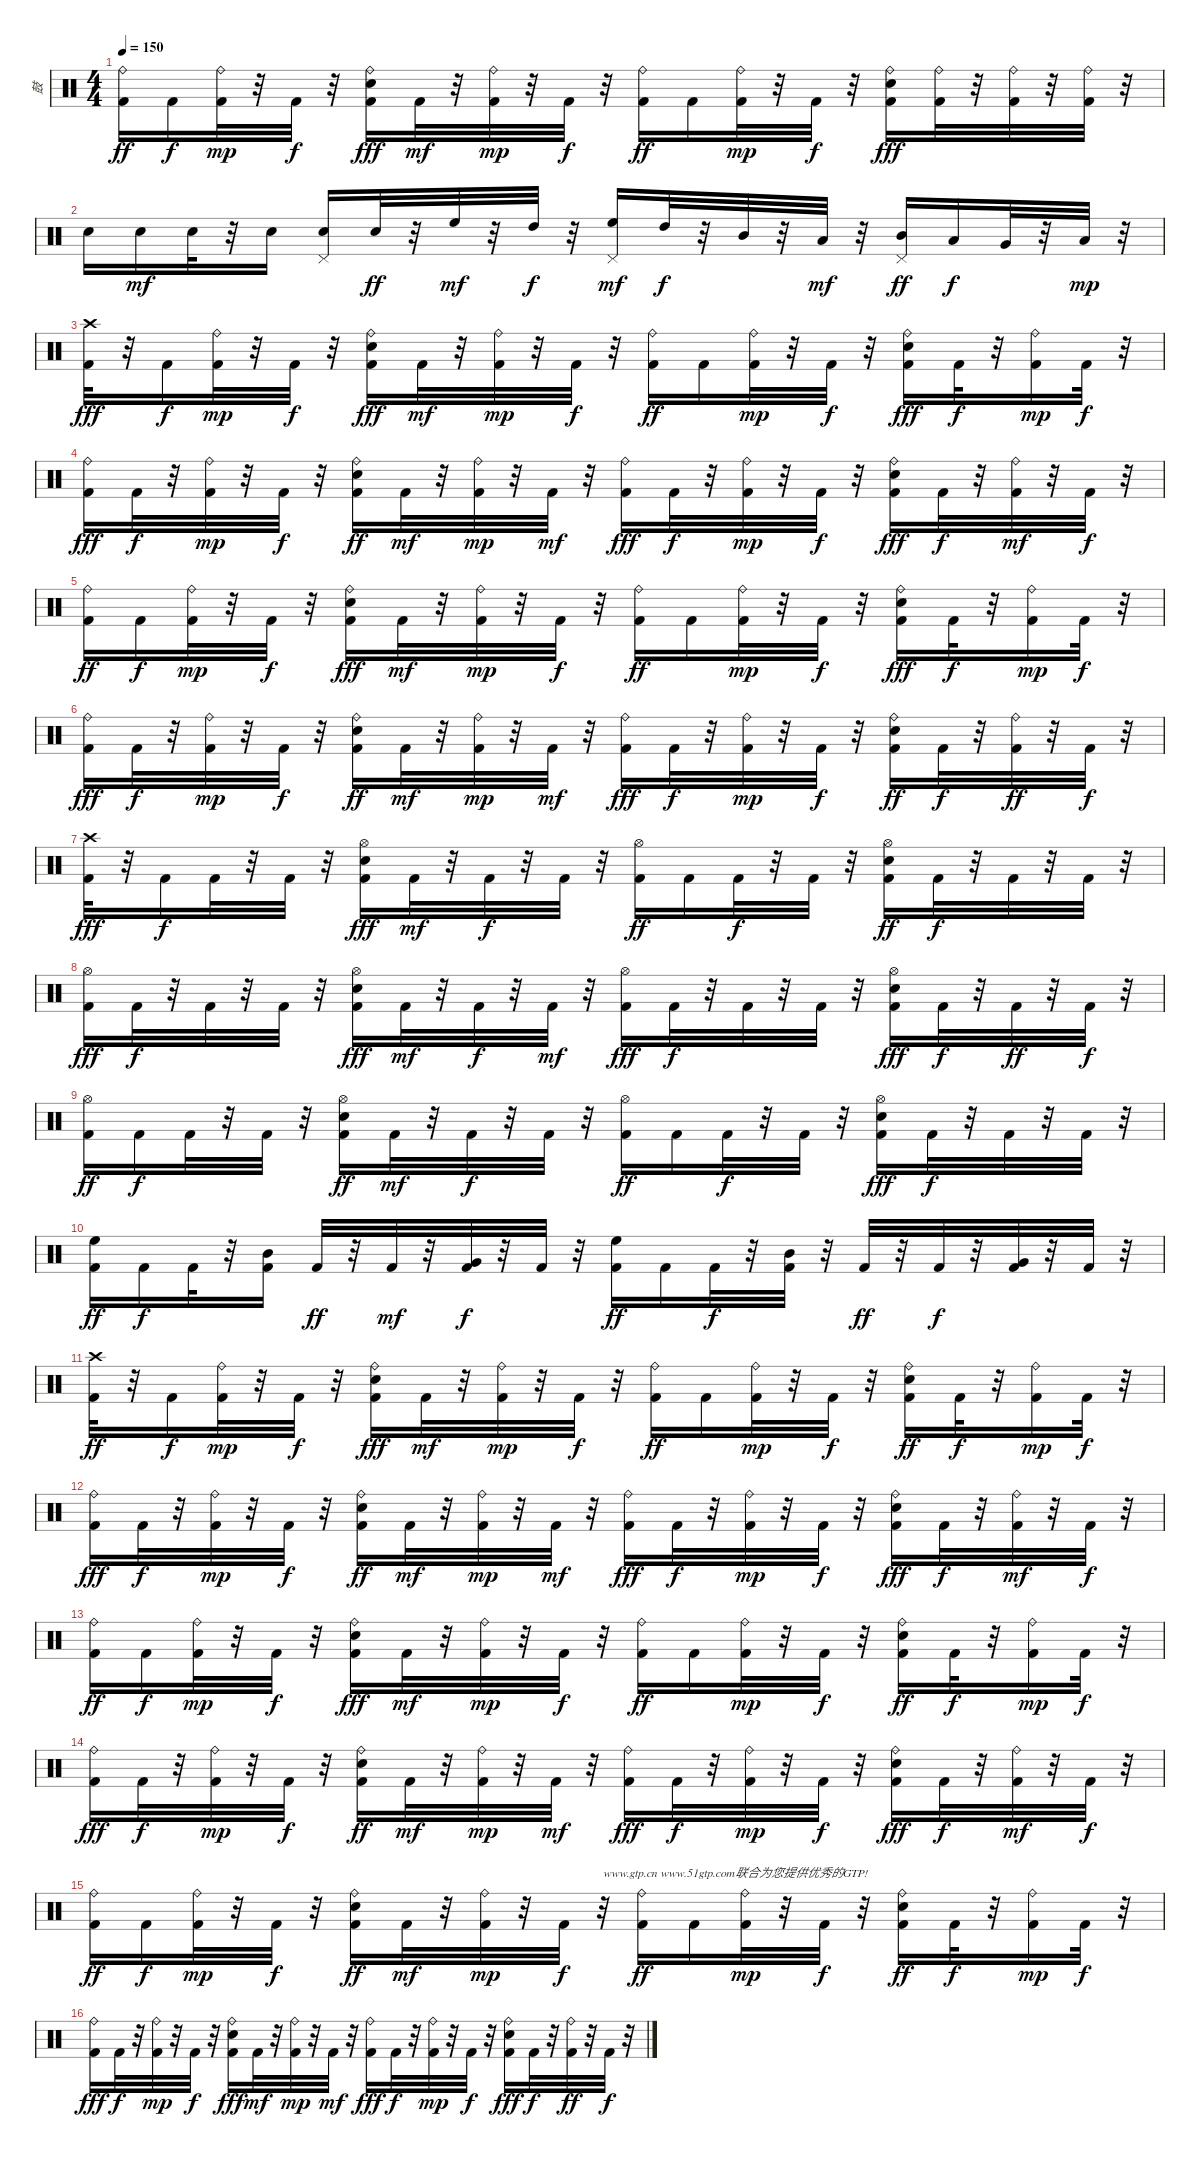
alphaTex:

\track ("鼓" "鼓") {instrument percussion}
\staff {score}
\articulation defaults
\ts (4 4)
\tempo 150
\clef neutral
\ks c
("Ride (bell)" "Kick (hit) 2").16{dy ff} "Kick (hit) 2".16{dy f} ("Ride (bell)" "Kick (hit) 2").32{dy mp} r.32 "Kick (hit) 2".32{dy f} r.32 ("Kick (hit) 2" "Electric Snare (hit)" "Ride (bell)").16{dy fff} "Kick (hit) 2".32{dy mf} r.32 ("Kick (hit) 2" "Ride (bell)").32{dy mp} r.32 "Kick (hit) 2".32{dy f} r.32 ("Ride (bell)" "Kick (hit) 2").16{dy ff} "Kick (hit) 2".16 ("Ride (bell)" "Kick (hit) 2").32{dy mp} r.32 "Kick (hit) 2".32{dy f} r.32 ("Electric Snare (hit)" "Kick (hit) 2" "Ride (bell)").16{dy fff} ("Kick (hit) 2" "Ride (bell)").32 r.32 ("Ride (bell)" "Kick (hit) 2").32 r.32 ("Ride (bell)" "Kick (hit) 2").32 r.32 |
"Electric Snare (hit)".16 "Electric Snare (hit)".16{dy mf} "Electric Snare (hit)".32 r.32 "Electric Snare (hit)".16 ("Electric Snare (hit)" "Pedal Hi-Hat (hit)").16 "Electric Snare (hit)".32{dy ff} r.32 "High Floor Tom (hit)".32{dy mf} r.32 "High Tom (hit)".32{dy f} r.32 ("High Floor Tom (hit)" "Pedal Hi-Hat (hit)").16{dy mf} "High Tom (hit)".32{dy f} r.32 "Mid Tom (hit)".32 r.32 "Low Tom (hit)".32{dy mf} r.32 ("Pedal Hi-Hat (hit)" "Mid Tom (hit)").16{dy ff} "Low Tom (hit)".16{dy f} "Very Low Tom (hit)".32 r.32 "Low Floor Tom (hit)".32{dy mp} r.32 |
("Kick (hit) 2" "Crash high (hit)").32{dy fff} r.32 "Kick (hit) 2".16{dy f} ("Ride (bell)" "Kick (hit) 2").32{dy mp} r.32 "Kick (hit) 2".32{dy f} r.32 ("Electric Snare (hit)" "Kick (hit) 2" "Ride (bell)").16{dy fff} "Kick (hit) 2".32{dy mf} r.32 ("Kick (hit) 2" "Ride (bell)").32{dy mp} r.32 "Kick (hit) 2".32{dy f} r.32 ("Kick (hit) 2" "Ride (bell)").16{dy ff} "Kick (hit) 2".16 ("Ride (bell)" "Kick (hit) 2").32{dy mp} r.32 "Kick (hit) 2".32{dy f} r.32 ("Kick (hit) 2" "Ride (bell)" "Electric Snare (hit)").16{dy fff} "Kick (hit) 2".32{dy f} r.32 ("Ride (bell)" "Kick (hit) 2").16{dy mp} "Kick (hit) 2".32{dy f} r.32 |
("Ride (bell)" "Kick (hit) 2").16{dy fff} "Kick (hit) 2".32{dy f} r.32 ("Ride (bell)" "Kick (hit) 2").32{dy mp} r.32 "Kick (hit) 2".32{dy f} r.32 ("Kick (hit) 2" "Electric Snare (hit)" "Ride (bell)").16{dy ff} "Kick (hit) 2".32{dy mf} r.32 ("Ride (bell)" "Kick (hit) 2").32{dy mp} r.32 "Kick (hit) 2".32{dy mf} r.32 ("Kick (hit) 2" "Ride (bell)").16{dy fff} "Kick (hit) 2".32{dy f} r.32 ("Ride (bell)" "Kick (hit) 2").32{dy mp} r.32 "Kick (hit) 2".32{dy f} r.32 ("Ride (bell)" "Electric Snare (hit)" "Kick (hit) 2").16{dy fff} "Kick (hit) 2".32{dy f} r.32 ("Kick (hit) 2" "Ride (bell)").32{dy mf} r.32 "Kick (hit) 2".32{dy f} r.32 |
("Kick (hit) 2" "Ride (bell)").16{dy ff} "Kick (hit) 2".16{dy f} ("Ride (bell)" "Kick (hit) 2").32{dy mp} r.32 "Kick (hit) 2".32{dy f} r.32 ("Electric Snare (hit)" "Kick (hit) 2" "Ride (bell)").16{dy fff} "Kick (hit) 2".32{dy mf} r.32 ("Ride (bell)" "Kick (hit) 2").32{dy mp} r.32 "Kick (hit) 2".32{dy f} r.32 ("Ride (bell)" "Kick (hit) 2").16{dy ff} "Kick (hit) 2".16 ("Kick (hit) 2" "Ride (bell)").32{dy mp} r.32 "Kick (hit) 2".32{dy f} r.32 ("Kick (hit) 2" "Ride (bell)" "Electric Snare (hit)").16{dy fff} "Kick (hit) 2".32{dy f} r.32 ("Ride (bell)" "Kick (hit) 2").16{dy mp} "Kick (hit) 2".32{dy f} r.32 |
("Ride (bell)" "Kick (hit) 2").16{dy fff} "Kick (hit) 2".32{dy f} r.32 ("Kick (hit) 2" "Ride (bell)").32{dy mp} r.32 "Kick (hit) 2".32{dy f} r.32 ("Kick (hit) 2" "Electric Snare (hit)" "Ride (bell)").16{dy ff} "Kick (hit) 2".32{dy mf} r.32 ("Ride (bell)" "Kick (hit) 2").32{dy mp} r.32 "Kick (hit) 2".32{dy mf} r.32 ("Ride (bell)" "Kick (hit) 2").16{dy fff} "Kick (hit) 2".32{dy f} r.32 ("Kick (hit) 2" "Ride (bell)").32{dy mp} r.32 "Kick (hit) 2".32{dy f} r.32 ("Kick (hit) 2" "Electric Snare (hit)" "Ride (bell)").16{dy ff} "Kick (hit) 2".32{dy f} r.32 ("Ride (bell)" "Kick (hit) 2").32{dy ff} r.32 "Kick (hit) 2".32{dy f} r.32 |
("Kick (hit) 2" "Crash high (hit)").32{dy fff} r.32 "Kick (hit) 2".16{dy f} "Kick (hit) 2".32 r.32 "Kick (hit) 2".32 r.32 ("Kick (hit) 2" "Hi-Hat (open)" "Electric Snare (hit)").16{dy fff} "Kick (hit) 2".32{dy mf} r.32 "Kick (hit) 2".32{dy f} r.32 "Kick (hit) 2".32 r.32 ("Hi-Hat (open)" "Kick (hit) 2").16{dy ff} "Kick (hit) 2".16 "Kick (hit) 2".32{dy f} r.32 "Kick (hit) 2".32 r.32 ("Electric Snare (hit)" "Kick (hit) 2" "Hi-Hat (open)").16{dy ff} "Kick (hit) 2".32{dy f} r.32 "Kick (hit) 2".32 r.32 "Kick (hit) 2".32 r.32 |
("Kick (hit) 2" "Hi-Hat (open)").16{dy fff} "Kick (hit) 2".32{dy f} r.32 "Kick (hit) 2".32 r.32 "Kick (hit) 2".32 r.32 ("Kick (hit) 2" "Electric Snare (hit)" "Hi-Hat (open)").16{dy fff} "Kick (hit) 2".32{dy mf} r.32 "Kick (hit) 2".32{dy f} r.32 "Kick (hit) 2".32{dy mf} r.32 ("Hi-Hat (open)" "Kick (hit) 2").16{dy fff} "Kick (hit) 2".32{dy f} r.32 "Kick (hit) 2".32 r.32 "Kick (hit) 2".32 r.32 ("Hi-Hat (open)" "Kick (hit) 2" "Electric Snare (hit)").16{dy fff} "Kick (hit) 2".32{dy f} r.32 "Kick (hit) 2".32{dy ff} r.32 "Kick (hit) 2".32{dy f} r.32 |
("Hi-Hat (open)" "Kick (hit) 2").16{dy ff} "Kick (hit) 2".16{dy f} "Kick (hit) 2".32 r.32 "Kick (hit) 2".32 r.32 ("Electric Snare (hit)" "Hi-Hat (open)" "Kick (hit) 2").16{dy ff} "Kick (hit) 2".32{dy mf} r.32 "Kick (hit) 2".32{dy f} r.32 "Kick (hit) 2".32 r.32 ("Hi-Hat (open)" "Kick (hit) 2").16{dy ff} "Kick (hit) 2".16 "Kick (hit) 2".32{dy f} r.32 "Kick (hit) 2".32 r.32 ("Kick (hit) 2" "Hi-Hat (open)" "Electric Snare (hit)").16{dy fff} "Kick (hit) 2".32{dy f} r.32 "Kick (hit) 2".32 r.32 "Kick (hit) 2".32 r.32 |
("High Floor Tom (hit)" "Kick (hit) 2").16{dy ff} "Kick (hit) 2".16{dy f} "Kick (hit) 2".32 r.32 ("Kick (hit) 2" "Mid Tom (hit)").16 "Kick (hit) 2".32{dy ff} r.32 "Kick (hit) 2".32{dy mf} r.32 ("Kick (hit) 2" "Very Low Tom (hit)").32{dy f} r.32 "Kick (hit) 2".32 r.32 ("High Floor Tom (hit)" "Kick (hit) 2").16{dy ff} "Kick (hit) 2".16 "Kick (hit) 2".32{dy f} r.32 ("Kick (hit) 2" "Mid Tom (hit)").32 r.32 "Kick (hit) 2".32{dy ff} r.32 "Kick (hit) 2".32{dy f} r.32 ("Kick (hit) 2" "Very Low Tom (hit)").32 r.32 "Kick (hit) 2".32 r.32 |
("Crash high (hit)" "Kick (hit) 2").32{dy ff} r.32 "Kick (hit) 2".16{dy f} ("Ride (bell)" "Kick (hit) 2").32{dy mp} r.32 "Kick (hit) 2".32{dy f} r.32 ("Ride (bell)" "Kick (hit) 2" "Electric Snare (hit)").16{dy fff} "Kick (hit) 2".32{dy mf} r.32 ("Ride (bell)" "Kick (hit) 2").32{dy mp} r.32 "Kick (hit) 2".32{dy f} r.32 ("Ride (bell)" "Kick (hit) 2").16{dy ff} "Kick (hit) 2".16 ("Kick (hit) 2" "Ride (bell)").32{dy mp} r.32 "Kick (hit) 2".32{dy f} r.32 ("Electric Snare (hit)" "Ride (bell)" "Kick (hit) 2").16{dy ff} "Kick (hit) 2".32{dy f} r.32 ("Kick (hit) 2" "Ride (bell)").16{dy mp} "Kick (hit) 2".32{dy f} r.32 |
("Ride (bell)" "Kick (hit) 2").16{dy fff} "Kick (hit) 2".32{dy f} r.32 ("Ride (bell)" "Kick (hit) 2").32{dy mp} r.32 "Kick (hit) 2".32{dy f} r.32 ("Kick (hit) 2" "Electric Snare (hit)" "Ride (bell)").16{dy ff} "Kick (hit) 2".32{dy mf} r.32 ("Kick (hit) 2" "Ride (bell)").32{dy mp} r.32 "Kick (hit) 2".32{dy mf} r.32 ("Ride (bell)" "Kick (hit) 2").16{dy fff} "Kick (hit) 2".32{dy f} r.32 ("Kick (hit) 2" "Ride (bell)").32{dy mp} r.32 "Kick (hit) 2".32{dy f} r.32 ("Ride (bell)" "Kick (hit) 2" "Electric Snare (hit)").16{dy fff} "Kick (hit) 2".32{dy f} r.32 ("Kick (hit) 2" "Ride (bell)").32{dy mf} r.32 "Kick (hit) 2".32{dy f} r.32 |
("Kick (hit) 2" "Ride (bell)").16{dy ff} "Kick (hit) 2".16{dy f} ("Kick (hit) 2" "Ride (bell)").32{dy mp} r.32 "Kick (hit) 2".32{dy f} r.32 ("Electric Snare (hit)" "Kick (hit) 2" "Ride (bell)").16{dy fff} "Kick (hit) 2".32{dy mf} r.32 ("Kick (hit) 2" "Ride (bell)").32{dy mp} r.32 "Kick (hit) 2".32{dy f} r.32 ("Ride (bell)" "Kick (hit) 2").16{dy ff} "Kick (hit) 2".16 ("Kick (hit) 2" "Ride (bell)").32{dy mp} r.32 "Kick (hit) 2".32{dy f} r.32 ("Electric Snare (hit)" "Ride (bell)" "Kick (hit) 2").16{dy ff} "Kick (hit) 2".32{dy f} r.32 ("Ride (bell)" "Kick (hit) 2").16{dy mp} "Kick (hit) 2".32{dy f} r.32 |
("Ride (bell)" "Kick (hit) 2").16{dy fff} "Kick (hit) 2".32{dy f} r.32 ("Kick (hit) 2" "Ride (bell)").32{dy mp} r.32 "Kick (hit) 2".32{dy f} r.32 ("Electric Snare (hit)" "Kick (hit) 2" "Ride (bell)").16{dy ff} "Kick (hit) 2".32{dy mf} r.32 ("Ride (bell)" "Kick (hit) 2").32{dy mp} r.32 "Kick (hit) 2".32{dy mf} r.32 ("Kick (hit) 2" "Ride (bell)").16{dy fff} "Kick (hit) 2".32{dy f} r.32 ("Kick (hit) 2" "Ride (bell)").32{dy mp} r.32 "Kick (hit) 2".32{dy f} r.32 ("Kick (hit) 2" "Ride (bell)" "Electric Snare (hit)").16{dy fff} "Kick (hit) 2".32{dy f} r.32 ("Kick (hit) 2" "Ride (bell)").32{dy mf} r.32 "Kick (hit) 2".32{dy f} r.32 |
("Kick (hit) 2" "Ride (bell)").16{dy ff} "Kick (hit) 2".16{dy f} ("Ride (bell)" "Kick (hit) 2").32{dy mp} r.32 "Kick (hit) 2".32{dy f} r.32 ("Ride (bell)" "Electric Snare (hit)" "Kick (hit) 2").16{dy ff} "Kick (hit) 2".32{dy mf} r.32 ("Kick (hit) 2" "Ride (bell)").32{dy mp} r.32 "Kick (hit) 2".32{dy f} r.32{txt "www.gtp.cn www.51gtp.com联合为您提供优秀的GTP!"} ("Ride (bell)" "Kick (hit) 2").16{dy ff} "Kick (hit) 2".16 ("Kick (hit) 2" "Ride (bell)").32{dy mp} r.32 "Kick (hit) 2".32{dy f} r.32 ("Electric Snare (hit)" "Kick (hit) 2" "Ride (bell)").16{dy ff} "Kick (hit) 2".32{dy f} r.32 ("Ride (bell)" "Kick (hit) 2").16{dy mp} "Kick (hit) 2".32{dy f} r.32 |
("Kick (hit) 2" "Ride (bell)").16{dy fff} "Kick (hit) 2".32{dy f} r.32 ("Kick (hit) 2" "Ride (bell)").32{dy mp} r.32 "Kick (hit) 2".32{dy f} r.32 ("Ride (bell)" "Kick (hit) 2" "Electric Snare (hit)").16{dy fff} "Kick (hit) 2".32{dy mf} r.32 ("Ride (bell)" "Kick (hit) 2").32{dy mp} r.32 "Kick (hit) 2".32{dy mf} r.32 ("Ride (bell)" "Kick (hit) 2").16{dy fff} "Kick (hit) 2".32{dy f} r.32 ("Ride (bell)" "Kick (hit) 2").32{dy mp} r.32 "Kick (hit) 2".32{dy f} r.32 ("Kick (hit) 2" "Ride (bell)" "Electric Snare (hit)").16{dy fff} "Kick (hit) 2".32{dy f} r.32 ("Ride (bell)" "Kick (hit) 2").32{dy ff} r.32 "Kick (hit) 2".32{dy f} r.32
